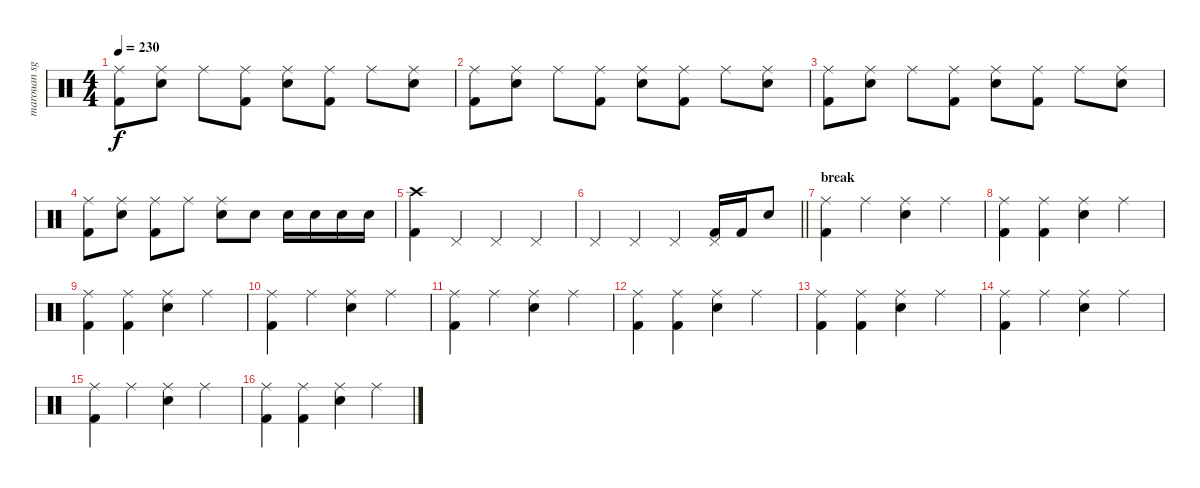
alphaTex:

\track ("marouan sghir" "marouan sg") {instrument percussion}
\staff {score}
\articulation defaults
\ts (4 4)
\tempo 230
\clef neutral
\ks c
("Ride (middle)" "Kick (hit) 2").8{dy f} ("Ride (middle)" "Snare (hit) 2").8 "Ride (middle)".8 ("Ride (middle)" "Kick (hit) 2").8 ("Ride (middle)" "Snare (hit) 2").8 ("Ride (middle)" "Kick (hit) 2").8 "Ride (middle)".8 ("Ride (middle)" "Snare (hit) 2").8 |
("Ride (middle)" "Kick (hit) 2").8 ("Ride (middle)" "Snare (hit) 2").8 "Ride (middle)".8 ("Ride (middle)" "Kick (hit) 2").8 ("Ride (middle)" "Snare (hit) 2").8 ("Ride (middle)" "Kick (hit) 2").8 "Ride (middle)".8 ("Ride (middle)" "Snare (hit) 2").8 |
("Ride (middle)" "Kick (hit) 2").8 ("Ride (middle)" "Snare (hit) 2").8 "Ride (middle)".8 ("Ride (middle)" "Kick (hit) 2").8 ("Ride (middle)" "Snare (hit) 2").8 ("Ride (middle)" "Kick (hit) 2").8 "Ride (middle)".8 ("Ride (middle)" "Snare (hit) 2").8 |
("Ride (middle)" "Kick (hit) 2").8 ("Ride (middle)" "Snare (hit) 2").8 ("Ride (middle)" "Kick (hit) 2").8 "Ride (middle)".8 ("Ride (middle)" "Snare (hit) 2").8 "Snare (hit) 2".8 "Snare (hit) 2".16 "Snare (hit) 2".16 "Snare (hit) 2".16 "Snare (hit) 2".16 |
("Crash high (hit)" "Kick (hit) 2").4 "Pedal Hi-Hat (hit)".4 "Pedal Hi-Hat (hit)".4 "Pedal Hi-Hat (hit)".4 |
\barLineRight lightlight "Pedal Hi-Hat (hit)".4 "Pedal Hi-Hat (hit)".4 "Pedal Hi-Hat (hit)".4
("Pedal Hi-Hat (hit)" "Kick (hit) 2").16 "Kick (hit) 2".16 "Snare (hit) 2".8 |
\section ("" "break")
("Ride (middle)" "Kick (hit) 2").4 "Ride (middle)".4 ("Ride (middle)" "Snare (hit) 2").4 "Ride (middle)".4 |
("Ride (middle)" "Kick (hit) 2").4 ("Ride (middle)" "Kick (hit) 2").4 ("Ride (middle)" "Snare (hit) 2").4 "Ride (middle)".4 |
("Ride (middle)" "Kick (hit) 2").4 ("Ride (middle)" "Kick (hit) 2").4 ("Ride (middle)" "Snare (hit) 2").4 "Ride (middle)".4 |
("Ride (middle)" "Kick (hit) 2").4 "Ride (middle)".4 ("Ride (middle)" "Snare (hit) 2").4 "Ride (middle)".4 |
("Ride (middle)" "Kick (hit) 2").4 "Ride (middle)".4 ("Ride (middle)" "Snare (hit) 2").4 "Ride (middle)".4 |
("Ride (middle)" "Kick (hit) 2").4 ("Ride (middle)" "Kick (hit) 2").4 ("Ride (middle)" "Snare (hit) 2").4 "Ride (middle)".4 |
("Ride (middle)" "Kick (hit) 2").4 ("Ride (middle)" "Kick (hit) 2").4 ("Ride (middle)" "Snare (hit) 2").4 "Ride (middle)".4 |
("Ride (middle)" "Kick (hit) 2").4 "Ride (middle)".4 ("Ride (middle)" "Snare (hit) 2").4 "Ride (middle)".4 |
("Ride (middle)" "Kick (hit) 2").4 "Ride (middle)".4 ("Ride (middle)" "Snare (hit) 2").4 "Ride (middle)".4 |
("Ride (middle)" "Kick (hit) 2").4 ("Ride (middle)" "Kick (hit) 2").4 ("Ride (middle)" "Snare (hit) 2").4 "Ride (middle)".4
